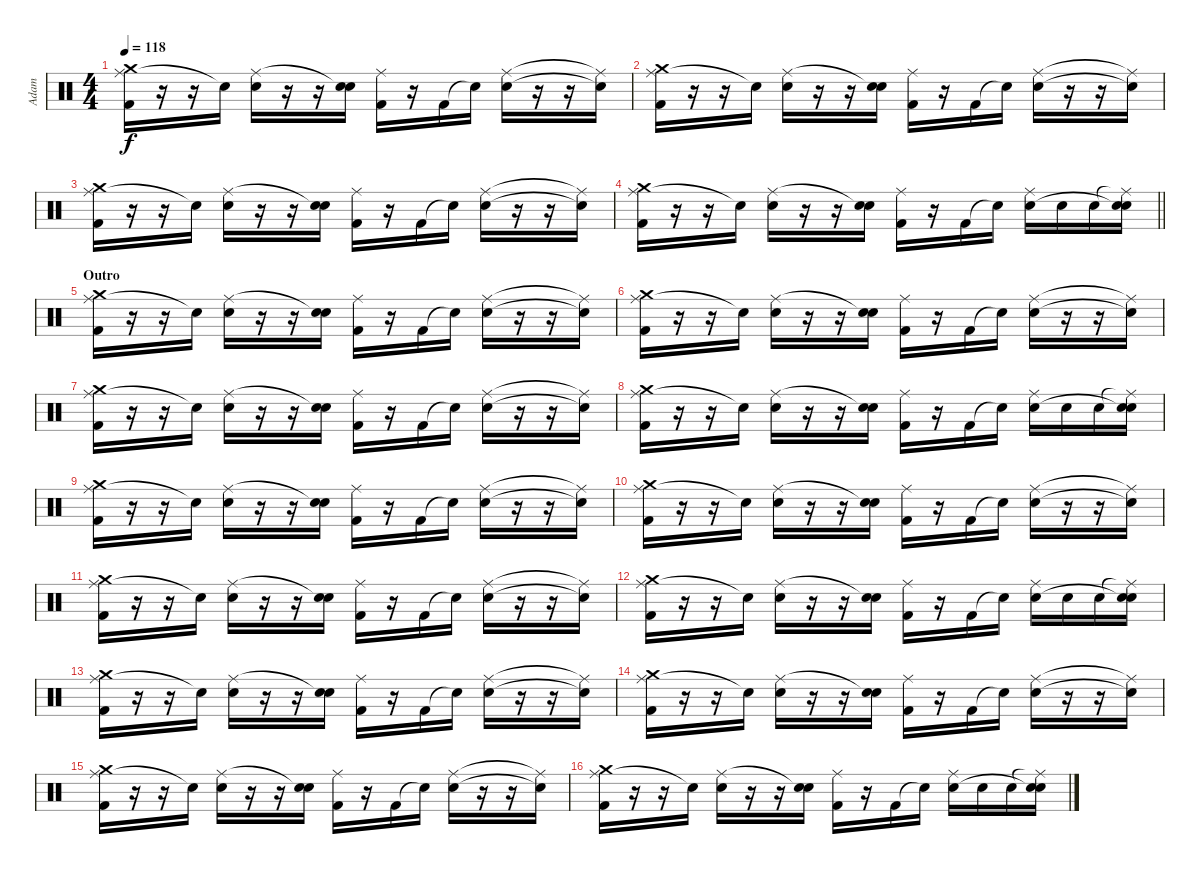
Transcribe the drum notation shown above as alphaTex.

\track ("Adam" "Adam") {instrument percussion}
\staff {score}
\articulation defaults
\ts (4 4)
\tempo 118
\clef neutral
\ks c
("Ride (middle)" "Crash medium (hit)" "Kick (hit) 2").16{dy f} r.16 r.16 "Snare (hit)"{t}.16 ("Ride (middle)" "Snare (hit) 2").16 r.16 r.16 ("Snare (hit)"{t} "Snare (hit) 2").16 ("Ride (middle)" "Kick (hit) 2").16 r.16 "Kick (hit) 2".16 "Snare (hit)"{t}.16 ("Ride (middle)" "Snare (hit) 2").16 r.16 r.16 ("Ride (middle)"{t} "Snare (hit)"{t}).16 |
("Ride (middle)" "Crash medium (hit)" "Kick (hit) 2").16 r.16 r.16 "Snare (hit)"{t}.16 ("Ride (middle)" "Snare (hit) 2").16 r.16 r.16 ("Snare (hit)"{t} "Snare (hit) 2").16 ("Ride (middle)" "Kick (hit) 2").16 r.16 "Kick (hit) 2".16 "Snare (hit)"{t}.16 ("Ride (middle)" "Snare (hit) 2").16 r.16 r.16 ("Ride (middle)"{t} "Snare (hit)"{t}).16 |
("Ride (middle)" "Crash medium (hit)" "Kick (hit) 2").16 r.16 r.16 "Snare (hit)"{t}.16 ("Ride (middle)" "Snare (hit) 2").16 r.16 r.16 ("Snare (hit)"{t} "Snare (hit) 2").16 ("Ride (middle)" "Kick (hit) 2").16 r.16 "Kick (hit) 2".16 "Snare (hit)"{t}.16 ("Ride (middle)" "Snare (hit) 2").16 r.16 r.16 ("Ride (middle)"{t} "Snare (hit)"{t}).16 |
\barLineRight lightlight
("Ride (middle)" "Crash medium (hit)" "Kick (hit) 2").16 r.16 r.16 "Snare (hit)"{t}.16 ("Ride (middle)" "Snare (hit) 2").16 r.16 r.16 ("Snare (hit)"{t} "Snare (hit) 2").16 ("Ride (middle)" "Kick (hit) 2").16 r.16 "Kick (hit) 2".16 "Snare (hit)"{t}.16 ("Ride (middle)" "Snare (hit) 2").16 "Snare (hit) 2".16 "Snare (hit) 2".16 ("Ride (middle)"{t} "Snare (hit)"{t} "Snare (hit) 2").16 |
\section ("" "Outro")
("Ride (middle)" "Crash medium (hit)" "Kick (hit) 2").16{volume 0} r.16 r.16 "Snare (hit)"{t}.16 ("Ride (middle)" "Snare (hit) 2").16 r.16 r.16 ("Snare (hit)"{t} "Snare (hit) 2").16 ("Ride (middle)" "Kick (hit) 2").16 r.16 "Kick (hit) 2".16 "Snare (hit)"{t}.16 ("Ride (middle)" "Snare (hit) 2").16 r.16 r.16 ("Ride (middle)"{t} "Snare (hit)"{t}).16 |
("Ride (middle)" "Crash medium (hit)" "Kick (hit) 2").16 r.16 r.16 "Snare (hit)"{t}.16 ("Ride (middle)" "Snare (hit) 2").16 r.16 r.16 ("Snare (hit)"{t} "Snare (hit) 2").16 ("Ride (middle)" "Kick (hit) 2").16 r.16 "Kick (hit) 2".16 "Snare (hit)"{t}.16 ("Ride (middle)" "Snare (hit) 2").16 r.16 r.16 ("Ride (middle)"{t} "Snare (hit)"{t}).16 |
("Ride (middle)" "Crash medium (hit)" "Kick (hit) 2").16 r.16 r.16 "Snare (hit)"{t}.16 ("Ride (middle)" "Snare (hit) 2").16 r.16 r.16 ("Snare (hit)"{t} "Snare (hit) 2").16 ("Ride (middle)" "Kick (hit) 2").16 r.16 "Kick (hit) 2".16 "Snare (hit)"{t}.16 ("Ride (middle)" "Snare (hit) 2").16 r.16 r.16 ("Ride (middle)"{t} "Snare (hit)"{t}).16 |
("Ride (middle)" "Crash medium (hit)" "Kick (hit) 2").16 r.16 r.16 "Snare (hit)"{t}.16 ("Ride (middle)" "Snare (hit) 2").16 r.16 r.16 ("Snare (hit)"{t} "Snare (hit) 2").16 ("Ride (middle)" "Kick (hit) 2").16 r.16 "Kick (hit) 2".16 "Snare (hit)"{t}.16 ("Ride (middle)" "Snare (hit) 2").16 "Snare (hit) 2".16 "Snare (hit) 2".16 ("Ride (middle)"{t} "Snare (hit)"{t} "Snare (hit) 2").16 |
("Ride (middle)" "Crash medium (hit)" "Kick (hit) 2").16 r.16 r.16 "Snare (hit)"{t}.16 ("Ride (middle)" "Snare (hit) 2").16 r.16 r.16 ("Snare (hit)"{t} "Snare (hit) 2").16 ("Ride (middle)" "Kick (hit) 2").16 r.16 "Kick (hit) 2".16 "Snare (hit)"{t}.16 ("Ride (middle)" "Snare (hit) 2").16 r.16 r.16 ("Ride (middle)"{t} "Snare (hit)"{t}).16 |
("Ride (middle)" "Crash medium (hit)" "Kick (hit) 2").16 r.16 r.16 "Snare (hit)"{t}.16 ("Ride (middle)" "Snare (hit) 2").16 r.16 r.16 ("Snare (hit)"{t} "Snare (hit) 2").16 ("Ride (middle)" "Kick (hit) 2").16 r.16 "Kick (hit) 2".16 "Snare (hit)"{t}.16 ("Ride (middle)" "Snare (hit) 2").16 r.16 r.16 ("Ride (middle)"{t} "Snare (hit)"{t}).16 |
("Ride (middle)" "Crash medium (hit)" "Kick (hit) 2").16 r.16 r.16 "Snare (hit)"{t}.16 ("Ride (middle)" "Snare (hit) 2").16 r.16 r.16 ("Snare (hit)"{t} "Snare (hit) 2").16 ("Ride (middle)" "Kick (hit) 2").16 r.16 "Kick (hit) 2".16 "Snare (hit)"{t}.16 ("Ride (middle)" "Snare (hit) 2").16 r.16 r.16 ("Ride (middle)"{t} "Snare (hit)"{t}).16 |
("Ride (middle)" "Crash medium (hit)" "Kick (hit) 2").16 r.16 r.16 "Snare (hit)"{t}.16 ("Ride (middle)" "Snare (hit) 2").16 r.16 r.16 ("Snare (hit)"{t} "Snare (hit) 2").16 ("Ride (middle)" "Kick (hit) 2").16 r.16 "Kick (hit) 2".16 "Snare (hit)"{t}.16 ("Ride (middle)" "Snare (hit) 2").16 "Snare (hit) 2".16 "Snare (hit) 2".16 ("Ride (middle)"{t} "Snare (hit)"{t} "Snare (hit) 2").16 |
("Ride (middle)" "Crash medium (hit)" "Kick (hit) 2").16 r.16 r.16 "Snare (hit)"{t}.16 ("Ride (middle)" "Snare (hit) 2").16 r.16 r.16 ("Snare (hit)"{t} "Snare (hit) 2").16 ("Ride (middle)" "Kick (hit) 2").16 r.16 "Kick (hit) 2".16 "Snare (hit)"{t}.16 ("Ride (middle)" "Snare (hit) 2").16 r.16 r.16 ("Ride (middle)"{t} "Snare (hit)"{t}).16 |
("Ride (middle)" "Crash medium (hit)" "Kick (hit) 2").16 r.16 r.16 "Snare (hit)"{t}.16 ("Ride (middle)" "Snare (hit) 2").16 r.16 r.16 ("Snare (hit)"{t} "Snare (hit) 2").16 ("Ride (middle)" "Kick (hit) 2").16 r.16 "Kick (hit) 2".16 "Snare (hit)"{t}.16 ("Ride (middle)" "Snare (hit) 2").16 r.16 r.16 ("Ride (middle)"{t} "Snare (hit)"{t}).16 |
("Ride (middle)" "Crash medium (hit)" "Kick (hit) 2").16 r.16 r.16 "Snare (hit)"{t}.16 ("Ride (middle)" "Snare (hit) 2").16 r.16 r.16 ("Snare (hit)"{t} "Snare (hit) 2").16 ("Ride (middle)" "Kick (hit) 2").16 r.16 "Kick (hit) 2".16 "Snare (hit)"{t}.16 ("Ride (middle)" "Snare (hit) 2").16 r.16 r.16 ("Ride (middle)"{t} "Snare (hit)"{t}).16 |
("Ride (middle)" "Crash medium (hit)" "Kick (hit) 2").16 r.16 r.16 "Snare (hit)"{t}.16 ("Ride (middle)" "Snare (hit) 2").16 r.16 r.16 ("Snare (hit)"{t} "Snare (hit) 2").16 ("Ride (middle)" "Kick (hit) 2").16 r.16 "Kick (hit) 2".16 "Snare (hit)"{t}.16 ("Ride (middle)" "Snare (hit) 2").16 "Snare (hit) 2".16 "Snare (hit) 2".16 ("Ride (middle)"{t} "Snare (hit)"{t} "Snare (hit) 2").16
